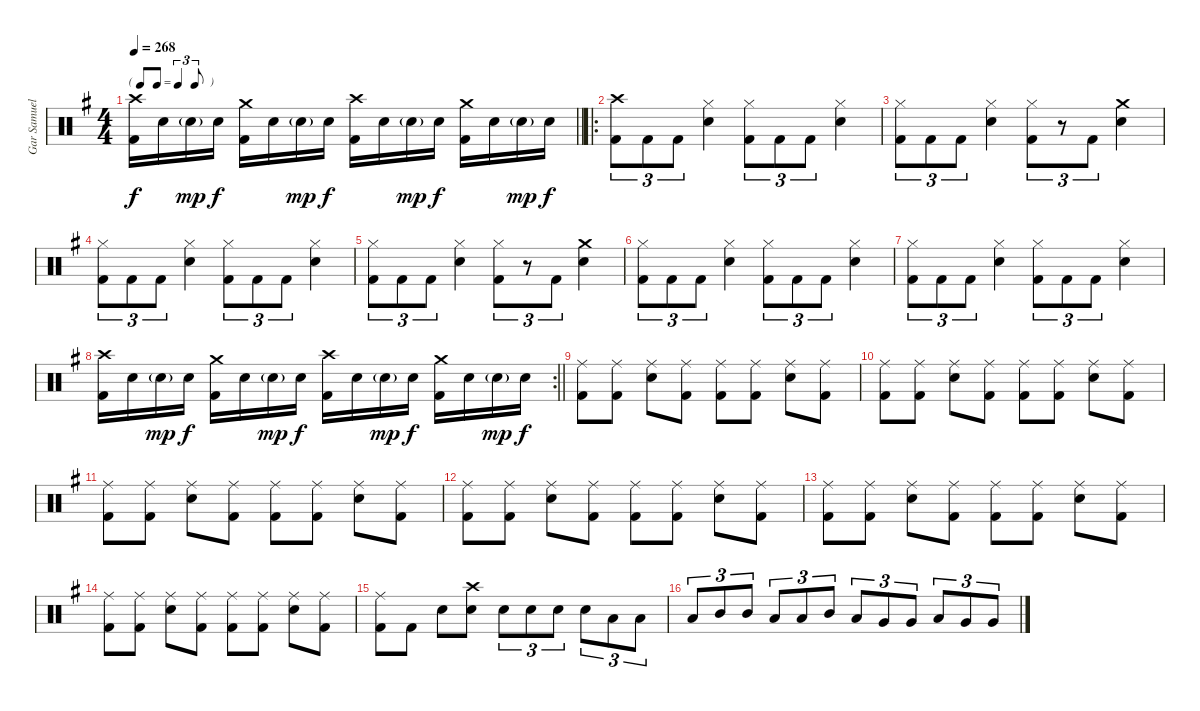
\track ("Gar Samuelson" "Gar Samuel") {instrument percussion}
\staff {score}
\articulation defaults
\ts (4 4)
\tf triplet8th
\tempo 268
\clef neutral
\barLineRight lightlight
\ks g
("Crash high (hit)" "Kick (hit) 2").16{dy f} "Snare (hit) 2".16 "Snare (hit) 2"{g}.16{dy mp} "Snare (hit) 2".16{dy f} ("Crash medium (hit)" "Kick (hit) 2").16 "Snare (hit) 2".16 "Snare (hit) 2"{g}.16{dy mp} "Snare (hit) 2".16{dy f} ("Crash high (hit)" "Kick (hit) 2").16 "Snare (hit) 2".16 "Snare (hit) 2"{g}.16{dy mp} "Snare (hit) 2".16{dy f} ("Crash medium (hit)" "Kick (hit) 2").16 "Snare (hit) 2".16 "Snare (hit) 2"{g}.16{dy mp} "Snare (hit) 2".16{dy f} |
\ro
("Crash high (hit)" "Kick (hit) 2").8{tu (3 2)} "Kick (hit) 2".8{tu (3 2)} "Kick (hit) 2".8{tu (3 2)} ("Hi-Hat (closed)" "Snare (hit) 2").4 ("Hi-Hat (closed)" "Kick (hit) 2").8{tu (3 2)} "Kick (hit) 2".8{tu (3 2)} "Kick (hit) 2".8{tu (3 2)} ("Hi-Hat (closed)" "Snare (hit) 2").4 |
("Hi-Hat (closed)" "Kick (hit) 2").8{tu (3 2)} "Kick (hit) 2".8{tu (3 2)} "Kick (hit) 2".8{tu (3 2)} ("Hi-Hat (closed)" "Snare (hit) 2").4 ("Hi-Hat (closed)" "Kick (hit) 2").8{tu (3 2)} r.8{tu (3 2)} "Kick (hit) 2".8{tu (3 2)} ("Crash medium (hit)" "Snare (hit) 2").4 |
("Hi-Hat (closed)" "Kick (hit) 2").8{tu (3 2)} "Kick (hit) 2".8{tu (3 2)} "Kick (hit) 2".8{tu (3 2)} ("Hi-Hat (closed)" "Snare (hit) 2").4 ("Hi-Hat (closed)" "Kick (hit) 2").8{tu (3 2)} "Kick (hit) 2".8{tu (3 2)} "Kick (hit) 2".8{tu (3 2)} ("Hi-Hat (closed)" "Snare (hit) 2").4 |
("Hi-Hat (closed)" "Kick (hit) 2").8{tu (3 2)} "Kick (hit) 2".8{tu (3 2)} "Kick (hit) 2".8{tu (3 2)} ("Hi-Hat (closed)" "Snare (hit) 2").4 ("Hi-Hat (closed)" "Kick (hit) 2").8{tu (3 2)} r.8{tu (3 2)} "Kick (hit) 2".8{tu (3 2)} ("Crash medium (hit)" "Snare (hit) 2").4 |
("Hi-Hat (closed)" "Kick (hit) 2").8{tu (3 2)} "Kick (hit) 2".8{tu (3 2)} "Kick (hit) 2".8{tu (3 2)} ("Hi-Hat (closed)" "Snare (hit) 2").4 ("Hi-Hat (closed)" "Kick (hit) 2").8{tu (3 2)} "Kick (hit) 2".8{tu (3 2)} "Kick (hit) 2".8{tu (3 2)} ("Hi-Hat (closed)" "Snare (hit) 2").4 |
("Hi-Hat (closed)" "Kick (hit) 2").8{tu (3 2)} "Kick (hit) 2".8{tu (3 2)} "Kick (hit) 2".8{tu (3 2)} ("Hi-Hat (closed)" "Snare (hit) 2").4 ("Hi-Hat (closed)" "Kick (hit) 2").8{tu (3 2)} "Kick (hit) 2".8{tu (3 2)} "Kick (hit) 2".8{tu (3 2)} ("Hi-Hat (closed)" "Snare (hit) 2").4 |
\rc 2
\barLineRight lightlight
("Crash high (hit)" "Kick (hit) 2").16 "Snare (hit) 2".16 "Snare (hit) 2"{g}.16{dy mp} "Snare (hit) 2".16{dy f} ("Crash medium (hit)" "Kick (hit) 2").16 "Snare (hit) 2".16 "Snare (hit) 2"{g}.16{dy mp} "Snare (hit) 2".16{dy f} ("Crash high (hit)" "Kick (hit) 2").16 "Snare (hit) 2".16 "Snare (hit) 2"{g}.16{dy mp} "Snare (hit) 2".16{dy f} ("Crash medium (hit)" "Kick (hit) 2").16 "Snare (hit) 2".16 "Snare (hit) 2"{g}.16{dy mp} "Snare (hit) 2".16{dy f} |
("Ride (middle)" "Kick (hit) 2").8 ("Ride (middle)" "Kick (hit) 2").8 ("Ride (middle)" "Snare (hit) 2").8 ("Ride (middle)" "Kick (hit) 2").8 ("Ride (middle)" "Kick (hit) 2").8 ("Ride (middle)" "Kick (hit) 2").8 ("Ride (middle)" "Snare (hit) 2").8 ("Ride (middle)" "Kick (hit) 2").8 |
("Ride (middle)" "Kick (hit) 2").8 ("Ride (middle)" "Kick (hit) 2").8 ("Ride (middle)" "Snare (hit) 2").8 ("Ride (middle)" "Kick (hit) 2").8 ("Ride (middle)" "Kick (hit) 2").8 ("Ride (middle)" "Kick (hit) 2").8 ("Ride (middle)" "Snare (hit) 2").8 ("Ride (middle)" "Kick (hit) 2").8 |
("Ride (middle)" "Kick (hit) 2").8 ("Ride (middle)" "Kick (hit) 2").8 ("Ride (middle)" "Snare (hit) 2").8 ("Ride (middle)" "Kick (hit) 2").8 ("Ride (middle)" "Kick (hit) 2").8 ("Ride (middle)" "Kick (hit) 2").8 ("Ride (middle)" "Snare (hit) 2").8 ("Ride (middle)" "Kick (hit) 2").8 |
("Ride (middle)" "Kick (hit) 2").8 ("Ride (middle)" "Kick (hit) 2").8 ("Ride (middle)" "Snare (hit) 2").8 ("Ride (middle)" "Kick (hit) 2").8 ("Ride (middle)" "Kick (hit) 2").8 ("Ride (middle)" "Kick (hit) 2").8 ("Ride (middle)" "Snare (hit) 2").8 ("Ride (middle)" "Kick (hit) 2").8 |
("Ride (middle)" "Kick (hit) 2").8 ("Ride (middle)" "Kick (hit) 2").8 ("Ride (middle)" "Snare (hit) 2").8 ("Ride (middle)" "Kick (hit) 2").8 ("Ride (middle)" "Kick (hit) 2").8 ("Ride (middle)" "Kick (hit) 2").8 ("Ride (middle)" "Snare (hit) 2").8 ("Ride (middle)" "Kick (hit) 2").8 |
("Ride (middle)" "Kick (hit) 2").8 ("Ride (middle)" "Kick (hit) 2").8 ("Ride (middle)" "Snare (hit) 2").8 ("Ride (middle)" "Kick (hit) 2").8 ("Ride (middle)" "Kick (hit) 2").8 ("Ride (middle)" "Kick (hit) 2").8 ("Ride (middle)" "Snare (hit) 2").8 ("Ride (middle)" "Kick (hit) 2").8 |
("Ride (middle)" "Kick (hit) 2").8 "Kick (hit) 2".8 "Snare (hit) 2".8 ("Crash high (hit)" "Snare (hit) 2").8 "Snare (hit) 2".8{tu (3 2)} "Snare (hit) 2".8{tu (3 2)} "Snare (hit) 2".8{tu (3 2)} "Snare (hit) 2".8{tu (3 2)} "Low Tom (hit)".8{tu (3 2)} "Low Tom (hit)".8{tu (3 2)} |
"Low Tom (hit)".8{tu (3 2)} "Mid Tom (hit)".8{tu (3 2)} "Mid Tom (hit)".8{tu (3 2)} "Low Tom (hit)".8{tu (3 2)} "Low Tom (hit)".8{tu (3 2)} "Mid Tom (hit)".8{tu (3 2)} "Low Tom (hit)".8{tu (3 2)} "Very Low Tom (hit)".8{tu (3 2)} "Very Low Tom (hit)".8{tu (3 2)} "Low Tom (hit)".8{tu (3 2)} "Very Low Tom (hit)".8{tu (3 2)} "Very Low Tom (hit)".8{tu (3 2)}
